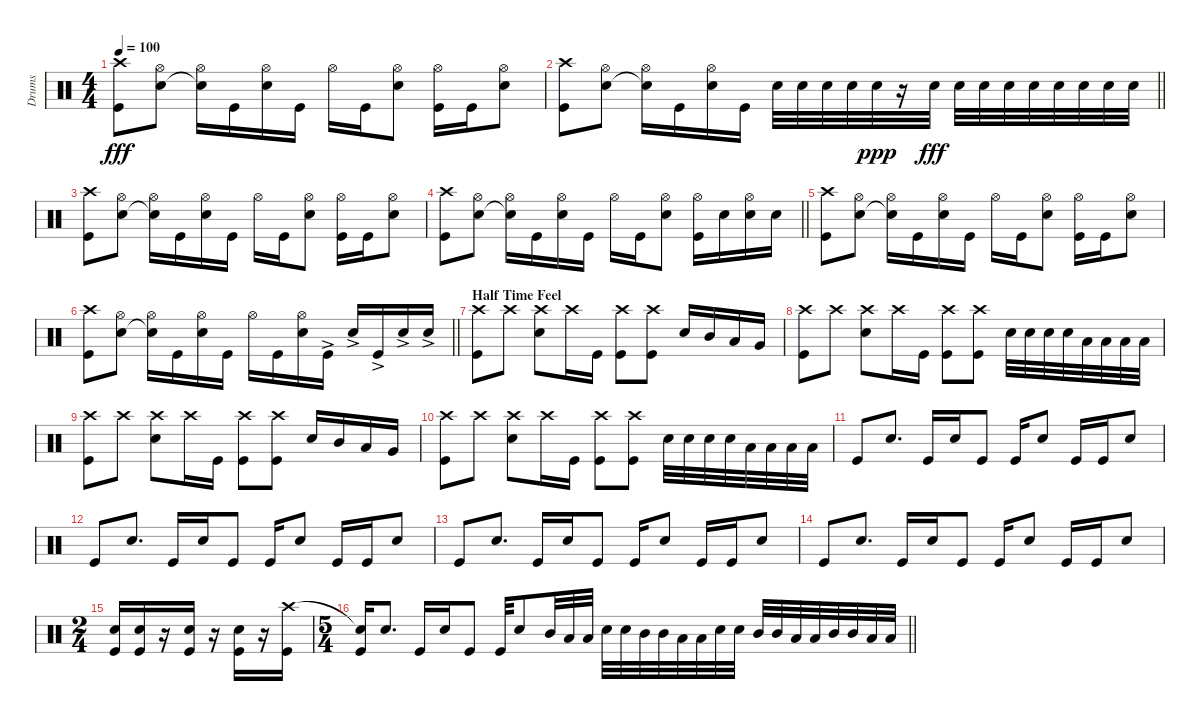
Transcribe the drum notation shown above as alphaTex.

\track ("Drums" "Drums") {instrument percussion}
\staff {score}
\articulation defaults
\ts (4 4)
\tempo 100
\clef neutral
\ks c
("Crash high (hit)" "Kick (hit)").8{dy fff} ("Hi-Hat (open)" "Snare (hit) 2").8 ("Hi-Hat (open)" "Snare (hit)"{t}).16 "Kick (hit)".16 ("Hi-Hat (open)" "Snare (hit) 2").16 "Kick (hit)".16 "Hi-Hat (open)".16 "Kick (hit)".16 ("Hi-Hat (open)" "Snare (hit) 2").8 ("Hi-Hat (open)" "Kick (hit)").16 "Kick (hit)".16 ("Hi-Hat (open)" "Snare (hit) 2").8 |
\barLineRight lightlight
("Crash high (hit)" "Kick (hit)").8 ("Hi-Hat (open)" "Snare (hit) 2").8 ("Hi-Hat (open)" "Snare (hit)"{t}).16 "Kick (hit)".16 ("Hi-Hat (open)" "Snare (hit) 2").16 "Kick (hit)".16 "Snare (hit) 2".32 "Snare (hit) 2".32 "Snare (hit) 2".32 "Snare (hit) 2".32 "Snare (hit) 2".32{dy ppp} r.16 "Snare (hit) 2".32{dy fff} "Snare (hit) 2".32 "Snare (hit) 2".32 "Snare (hit) 2".32 "Snare (hit) 2".32 "Snare (hit) 2".32 "Snare (hit) 2".32 "Snare (hit) 2".32 "Snare (hit) 2".32 |
("Crash high (hit)" "Kick (hit)").8 ("Hi-Hat (open)" "Snare (hit) 2").8 ("Hi-Hat (open)" "Snare (hit)"{t}).16 "Kick (hit)".16 ("Hi-Hat (open)" "Snare (hit) 2").16 "Kick (hit)".16 "Hi-Hat (open)".16 "Kick (hit)".16 ("Hi-Hat (open)" "Snare (hit) 2").8 ("Hi-Hat (open)" "Kick (hit)").16 "Kick (hit)".16 ("Hi-Hat (open)" "Snare (hit) 2").8 |
\barLineRight lightlight
("Crash high (hit)" "Kick (hit)").8 ("Hi-Hat (open)" "Snare (hit) 2").8 ("Hi-Hat (open)" "Snare (hit)"{t}).16 "Kick (hit)".16 ("Hi-Hat (open)" "Snare (hit) 2").16 "Kick (hit)".16 "Hi-Hat (open)".16 "Kick (hit)".16 ("Hi-Hat (open)" "Snare (hit) 2").8 ("Hi-Hat (open)" "Kick (hit)").16 "Snare (hit) 2".16 ("Hi-Hat (open)" "Snare (hit) 2").16 "Snare (hit) 2".16 |
("Crash high (hit)" "Kick (hit)").8 ("Hi-Hat (open)" "Snare (hit) 2").8 ("Hi-Hat (open)" "Snare (hit)"{t}).16 "Kick (hit)".16 ("Hi-Hat (open)" "Snare (hit) 2").16 "Kick (hit)".16 "Hi-Hat (open)".16 "Kick (hit)".16 ("Hi-Hat (open)" "Snare (hit) 2").8 ("Hi-Hat (open)" "Kick (hit)").16 "Kick (hit)".16 ("Hi-Hat (open)" "Snare (hit) 2").8 |
\barLineRight lightlight
("Crash high (hit)" "Kick (hit)").8 ("Hi-Hat (open)" "Snare (hit) 2").8 ("Hi-Hat (open)" "Snare (hit)"{t}).16 "Kick (hit)".16 ("Hi-Hat (open)" "Snare (hit) 2").16 "Kick (hit)".16 "Hi-Hat (open)".16 "Kick (hit)".16 ("Hi-Hat (open)" "Snare (hit) 2").16 "Kick (hit)"{ac}.16 "Snare (hit) 2"{ac}.16 "Kick (hit)"{ac}.16 "Snare (hit) 2"{ac}.16 "Snare (hit) 2"{ac}.16 |
\section ("" "Half Time Feel")
("Crash high (hit)" "Kick (hit)").8 "Crash high (hit)".8 ("Crash high (hit)" "Snare (hit) 2").8 "Crash high (hit)".16 "Kick (hit)".16 ("Crash high (hit)" "Kick (hit)").8 ("Crash high (hit)" "Kick (hit)").8 "Snare (hit) 2".16 "Mid Tom (hit)".16 "Low Tom (hit)".16 "Very Low Tom (hit)".16 |
("Crash high (hit)" "Kick (hit)").8 "Crash high (hit)".8 ("Crash high (hit)" "Snare (hit) 2").8 "Crash high (hit)".16 "Kick (hit)".16 ("Crash high (hit)" "Kick (hit)").8 ("Crash high (hit)" "Kick (hit)").8 "Snare (hit) 2".32 "Snare (hit) 2".32 "Snare (hit) 2".32 "Snare (hit) 2".32 "Low Tom (hit)".32 "Low Tom (hit)".32 "Low Tom (hit)".32 "Low Tom (hit)".32 |
("Crash high (hit)" "Kick (hit)").8 "Crash high (hit)".8 ("Crash high (hit)" "Snare (hit) 2").8 "Crash high (hit)".16 "Kick (hit)".16 ("Crash high (hit)" "Kick (hit)").8 ("Crash high (hit)" "Kick (hit)").8 "Snare (hit) 2".16 "Mid Tom (hit)".16 "Low Tom (hit)".16 "Very Low Tom (hit)".16 |
("Crash high (hit)" "Kick (hit)").8 "Crash high (hit)".8 ("Crash high (hit)" "Snare (hit) 2").8 "Crash high (hit)".16 "Kick (hit)".16 ("Crash high (hit)" "Kick (hit)").8 ("Crash high (hit)" "Kick (hit)").8 "Snare (hit) 2".32 "Snare (hit) 2".32 "Snare (hit) 2".32 "Snare (hit) 2".32 "Low Tom (hit)".32 "Low Tom (hit)".32 "Low Tom (hit)".32 "Low Tom (hit)".32 |
"Kick (hit)".8 "Snare (hit) 2".8{d} "Kick (hit)".16 "Snare (hit) 2".16 "Kick (hit)".8 "Kick (hit)".16 "Snare (hit) 2".8 "Kick (hit)".16 "Kick (hit)".16 "Snare (hit) 2".8 |
"Kick (hit)".8 "Snare (hit) 2".8{d} "Kick (hit)".16 "Snare (hit) 2".16 "Kick (hit)".8 "Kick (hit)".16 "Snare (hit) 2".8 "Kick (hit)".16 "Kick (hit)".16 "Snare (hit) 2".8 |
"Kick (hit)".8 "Snare (hit) 2".8{d} "Kick (hit)".16 "Snare (hit) 2".16 "Kick (hit)".8 "Kick (hit)".16 "Snare (hit) 2".8 "Kick (hit)".16 "Kick (hit)".16 "Snare (hit) 2".8 |
"Kick (hit)".8 "Snare (hit) 2".8{d} "Kick (hit)".16 "Snare (hit) 2".16 "Kick (hit)".8 "Kick (hit)".16 "Snare (hit) 2".8 "Kick (hit)".16 "Kick (hit)".16 "Snare (hit) 2".8 |
\ts (2 4)
("Snare (hit) 2" "Kick (hit)").16 ("Snare (hit) 2" "Kick (hit)").16 r.16 ("Snare (hit) 2" "Kick (hit)").16 r.16 ("Snare (hit) 2" "Kick (hit)").16 r.16 ("Crash high (hit)" "Kick (hit)").16 |
\ts (5 4)
\barLineRight lightlight
("Snare (hit)"{t} "Kick (hit)").16 "Snare (hit) 2".8{d} "Kick (hit)".16 "Snare (hit) 2".16 "Kick (hit)".8 "Kick (hit)".32 "Snare (hit) 2".8 "Mid Tom (hit)".32 "Low Tom (hit)".32 "Low Tom (hit)".32 "Snare (hit) 2".32 "Snare (hit) 2".32 "Mid Tom (hit)".32 "Mid Tom (hit)".32 "Low Tom (hit)".32 "Low Tom (hit)".32 "Snare (hit) 2".32 "Snare (hit) 2".32 "Mid Tom (hit)".32 "Mid Tom (hit)".32 "Low Tom (hit)".32 "Low Tom (hit)".32 "Mid Tom (hit)".32 "Mid Tom (hit)".32 "Low Tom (hit)".32 "Low Tom (hit)".32
